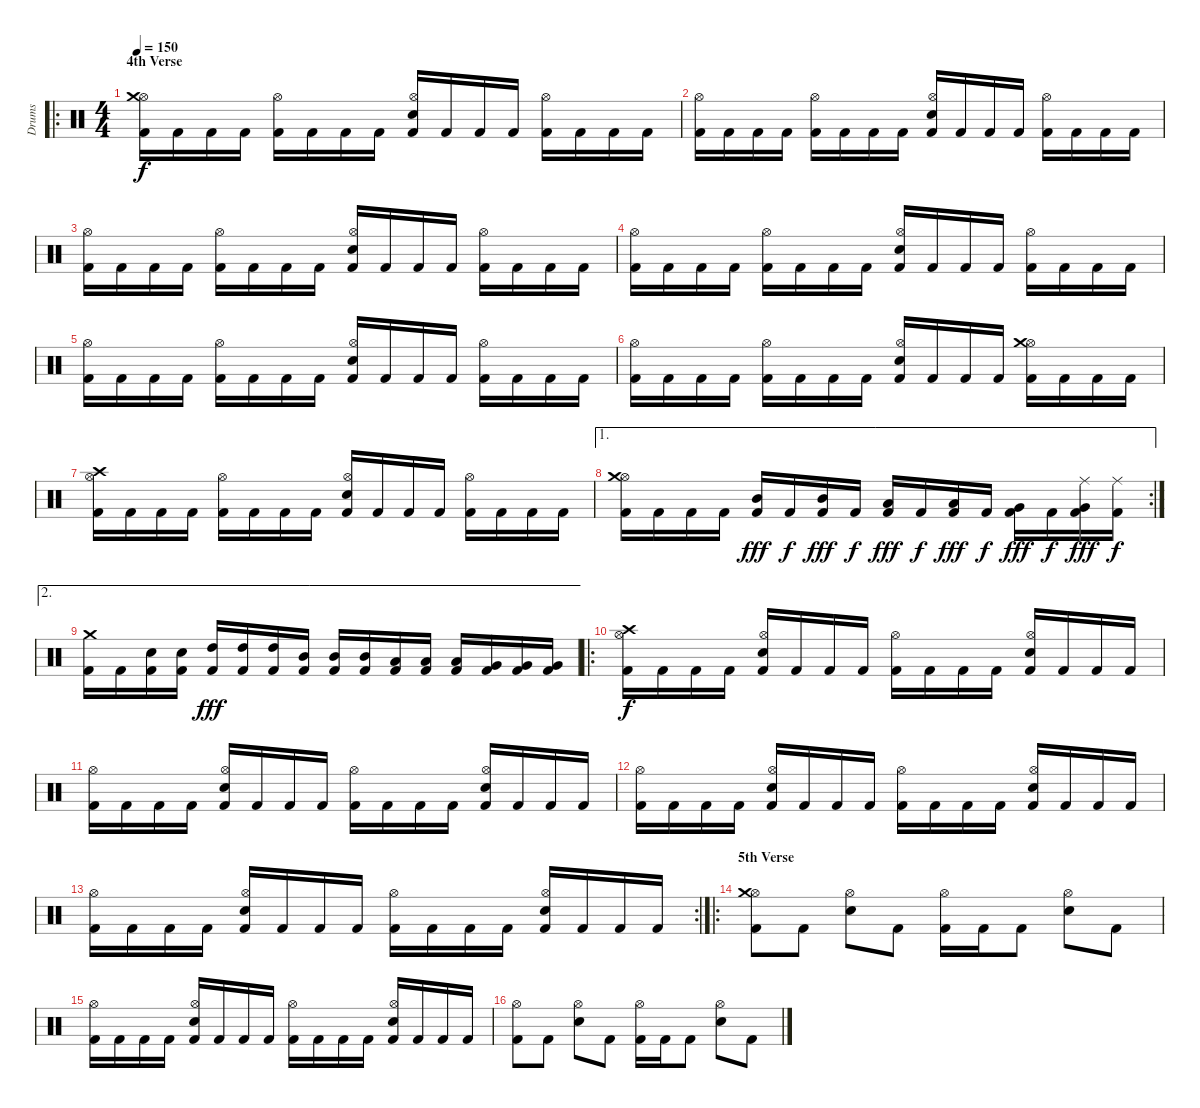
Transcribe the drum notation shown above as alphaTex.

\track ("Drums" "Drums") {instrument percussion}
\staff {score}
\articulation defaults
\ro
\ts (4 4)
\section ("" "4th Verse")
\tempo 150
\clef neutral
\ks c
("Kick (hit) 2" "Hi-Hat (open)" "Crash medium (hit)").16{dy f} "Kick (hit) 2".16 "Kick (hit) 2".16 "Kick (hit) 2".16 ("Kick (hit) 2" "Hi-Hat (open)").16 "Kick (hit) 2".16 "Kick (hit) 2".16 "Kick (hit) 2".16 ("Kick (hit) 2" "Electric Snare (hit)" "Hi-Hat (open)").16 "Kick (hit) 2".16 "Kick (hit) 2".16 "Kick (hit) 2".16 ("Kick (hit) 2" "Hi-Hat (open)").16 "Kick (hit) 2".16 "Kick (hit) 2".16 "Kick (hit) 2".16 |
("Kick (hit) 2" "Hi-Hat (open)").16 "Kick (hit) 2".16 "Kick (hit) 2".16 "Kick (hit) 2".16 ("Kick (hit) 2" "Hi-Hat (open)").16 "Kick (hit) 2".16 "Kick (hit) 2".16 "Kick (hit) 2".16 ("Kick (hit) 2" "Electric Snare (hit)" "Hi-Hat (open)").16 "Kick (hit) 2".16 "Kick (hit) 2".16 "Kick (hit) 2".16 ("Kick (hit) 2" "Hi-Hat (open)").16 "Kick (hit) 2".16 "Kick (hit) 2".16 "Kick (hit) 2".16 |
("Kick (hit) 2" "Hi-Hat (open)").16 "Kick (hit) 2".16 "Kick (hit) 2".16 "Kick (hit) 2".16 ("Kick (hit) 2" "Hi-Hat (open)").16 "Kick (hit) 2".16 "Kick (hit) 2".16 "Kick (hit) 2".16 ("Kick (hit) 2" "Electric Snare (hit)" "Hi-Hat (open)").16 "Kick (hit) 2".16 "Kick (hit) 2".16 "Kick (hit) 2".16 ("Kick (hit) 2" "Hi-Hat (open)").16 "Kick (hit) 2".16 "Kick (hit) 2".16 "Kick (hit) 2".16 |
("Kick (hit) 2" "Hi-Hat (open)").16 "Kick (hit) 2".16 "Kick (hit) 2".16 "Kick (hit) 2".16 ("Kick (hit) 2" "Hi-Hat (open)").16 "Kick (hit) 2".16 "Kick (hit) 2".16 "Kick (hit) 2".16 ("Kick (hit) 2" "Electric Snare (hit)" "Hi-Hat (open)").16 "Kick (hit) 2".16 "Kick (hit) 2".16 "Kick (hit) 2".16 ("Kick (hit) 2" "Hi-Hat (open)").16 "Kick (hit) 2".16 "Kick (hit) 2".16 "Kick (hit) 2".16 |
("Kick (hit) 2" "Hi-Hat (open)").16 "Kick (hit) 2".16 "Kick (hit) 2".16 "Kick (hit) 2".16 ("Kick (hit) 2" "Hi-Hat (open)").16 "Kick (hit) 2".16 "Kick (hit) 2".16 "Kick (hit) 2".16 ("Kick (hit) 2" "Electric Snare (hit)" "Hi-Hat (open)").16 "Kick (hit) 2".16 "Kick (hit) 2".16 "Kick (hit) 2".16 ("Kick (hit) 2" "Hi-Hat (open)").16 "Kick (hit) 2".16 "Kick (hit) 2".16 "Kick (hit) 2".16 |
("Kick (hit) 2" "Hi-Hat (open)").16 "Kick (hit) 2".16 "Kick (hit) 2".16 "Kick (hit) 2".16 ("Kick (hit) 2" "Hi-Hat (open)").16 "Kick (hit) 2".16 "Kick (hit) 2".16 "Kick (hit) 2".16 ("Kick (hit) 2" "Electric Snare (hit)" "Hi-Hat (open)").16 "Kick (hit) 2".16 "Kick (hit) 2".16 "Kick (hit) 2".16 ("Kick (hit) 2" "Hi-Hat (open)" "Crash medium (hit)").16 "Kick (hit) 2".16 "Kick (hit) 2".16 "Kick (hit) 2".16 |
("Kick (hit) 2" "Hi-Hat (open)" "Crash high (hit)").16 "Kick (hit) 2".16 "Kick (hit) 2".16 "Kick (hit) 2".16 ("Kick (hit) 2" "Hi-Hat (open)").16 "Kick (hit) 2".16 "Kick (hit) 2".16 "Kick (hit) 2".16 ("Kick (hit) 2" "Electric Snare (hit)" "Hi-Hat (open)").16 "Kick (hit) 2".16 "Kick (hit) 2".16 "Kick (hit) 2".16 ("Kick (hit) 2" "Hi-Hat (open)").16 "Kick (hit) 2".16 "Kick (hit) 2".16 "Kick (hit) 2".16 |
\ae 1
\rc 2
("Kick (hit) 2" "Hi-Hat (open)" "Crash medium (hit)").16 "Kick (hit) 2".16 "Kick (hit) 2".16 "Kick (hit) 2".16 ("Kick (hit) 2" "Mid Tom (hit)").16{dy fff} "Kick (hit) 2".16{dy f} ("Kick (hit) 2" "Mid Tom (hit)").16{dy fff} "Kick (hit) 2".16{dy f} ("Kick (hit) 2" "Low Tom (hit)").16{dy fff} "Kick (hit) 2".16{dy f} ("Kick (hit) 2" "Low Tom (hit)").16{dy fff} "Kick (hit) 2".16{dy f} ("Kick (hit) 2" "Very Low Tom (hit)").16{dy fff} "Kick (hit) 2".16{dy f} ("Kick (hit) 2" "Very Low Tom (hit)" "Ride (middle)").16{dy fff} ("Kick (hit) 2" "Ride (middle)").16{dy f} |
\ae 2
("Kick (hit) 2" "Crash medium (hit)").16 "Kick (hit) 2".16 ("Kick (hit) 2" "Electric Snare (hit)").16 ("Kick (hit) 2" "Electric Snare (hit)").16 ("Kick (hit) 2" "High Tom (hit)").16{dy fff} ("Kick (hit) 2" "High Tom (hit)").16 ("Kick (hit) 2" "High Tom (hit)").16 ("Kick (hit) 2" "Mid Tom (hit)").16 ("Kick (hit) 2" "Mid Tom (hit)").16 ("Kick (hit) 2" "Mid Tom (hit)").16 ("Kick (hit) 2" "Low Tom (hit)").16 ("Kick (hit) 2" "Low Tom (hit)").16 ("Kick (hit) 2" "Low Tom (hit)").16 ("Kick (hit) 2" "Very Low Tom (hit)").16 ("Kick (hit) 2" "Very Low Tom (hit)").16 ("Kick (hit) 2" "Very Low Tom (hit)").16 |
\ro
("Kick (hit) 2" "Hi-Hat (open)" "Crash high (hit)").16{dy f} "Kick (hit) 2".16 "Kick (hit) 2".16 "Kick (hit) 2".16 ("Kick (hit) 2" "Electric Snare (hit)" "Hi-Hat (open)").16 "Kick (hit) 2".16 "Kick (hit) 2".16 "Kick (hit) 2".16 ("Kick (hit) 2" "Hi-Hat (open)").16 "Kick (hit) 2".16 "Kick (hit) 2".16 "Kick (hit) 2".16 ("Kick (hit) 2" "Electric Snare (hit)" "Hi-Hat (open)").16 "Kick (hit) 2".16 "Kick (hit) 2".16 "Kick (hit) 2".16 |
("Kick (hit) 2" "Hi-Hat (open)").16 "Kick (hit) 2".16 "Kick (hit) 2".16 "Kick (hit) 2".16 ("Kick (hit) 2" "Electric Snare (hit)" "Hi-Hat (open)").16 "Kick (hit) 2".16 "Kick (hit) 2".16 "Kick (hit) 2".16 ("Kick (hit) 2" "Hi-Hat (open)").16 "Kick (hit) 2".16 "Kick (hit) 2".16 "Kick (hit) 2".16 ("Kick (hit) 2" "Electric Snare (hit)" "Hi-Hat (open)").16 "Kick (hit) 2".16 "Kick (hit) 2".16 "Kick (hit) 2".16 |
("Kick (hit) 2" "Hi-Hat (open)").16 "Kick (hit) 2".16 "Kick (hit) 2".16 "Kick (hit) 2".16 ("Kick (hit) 2" "Electric Snare (hit)" "Hi-Hat (open)").16 "Kick (hit) 2".16 "Kick (hit) 2".16 "Kick (hit) 2".16 ("Kick (hit) 2" "Hi-Hat (open)").16 "Kick (hit) 2".16 "Kick (hit) 2".16 "Kick (hit) 2".16 ("Kick (hit) 2" "Electric Snare (hit)" "Hi-Hat (open)").16 "Kick (hit) 2".16 "Kick (hit) 2".16 "Kick (hit) 2".16 |
\rc 2
("Kick (hit) 2" "Hi-Hat (open)").16 "Kick (hit) 2".16 "Kick (hit) 2".16 "Kick (hit) 2".16 ("Kick (hit) 2" "Electric Snare (hit)" "Hi-Hat (open)").16 "Kick (hit) 2".16 "Kick (hit) 2".16 "Kick (hit) 2".16 ("Kick (hit) 2" "Hi-Hat (open)").16 "Kick (hit) 2".16 "Kick (hit) 2".16 "Kick (hit) 2".16 ("Kick (hit) 2" "Electric Snare (hit)" "Hi-Hat (open)").16 "Kick (hit) 2".16 "Kick (hit) 2".16 "Kick (hit) 2".16 |
\ro
\section ("" "5th Verse")
("Kick (hit) 2" "Hi-Hat (open)" "Crash medium (hit)").8 "Kick (hit) 2".8 ("Electric Snare (hit)" "Hi-Hat (open)").8 "Kick (hit) 2".8 ("Kick (hit) 2" "Hi-Hat (open)").16 "Kick (hit) 2".16 "Kick (hit) 2".8 ("Electric Snare (hit)" "Hi-Hat (open)").8 "Kick (hit) 2".8 |
("Kick (hit) 2" "Hi-Hat (open)").16 "Kick (hit) 2".16 "Kick (hit) 2".16 "Kick (hit) 2".16 ("Kick (hit) 2" "Electric Snare (hit)" "Hi-Hat (open)").16 "Kick (hit) 2".16 "Kick (hit) 2".16 "Kick (hit) 2".16 ("Kick (hit) 2" "Hi-Hat (open)").16 "Kick (hit) 2".16 "Kick (hit) 2".16 "Kick (hit) 2".16 ("Kick (hit) 2" "Electric Snare (hit)" "Hi-Hat (open)").16 "Kick (hit) 2".16 "Kick (hit) 2".16 "Kick (hit) 2".16 |
("Kick (hit) 2" "Hi-Hat (open)").8 "Kick (hit) 2".8 ("Electric Snare (hit)" "Hi-Hat (open)").8 "Kick (hit) 2".8 ("Kick (hit) 2" "Hi-Hat (open)").16 "Kick (hit) 2".16 "Kick (hit) 2".8 ("Electric Snare (hit)" "Hi-Hat (open)").8 "Kick (hit) 2".8
